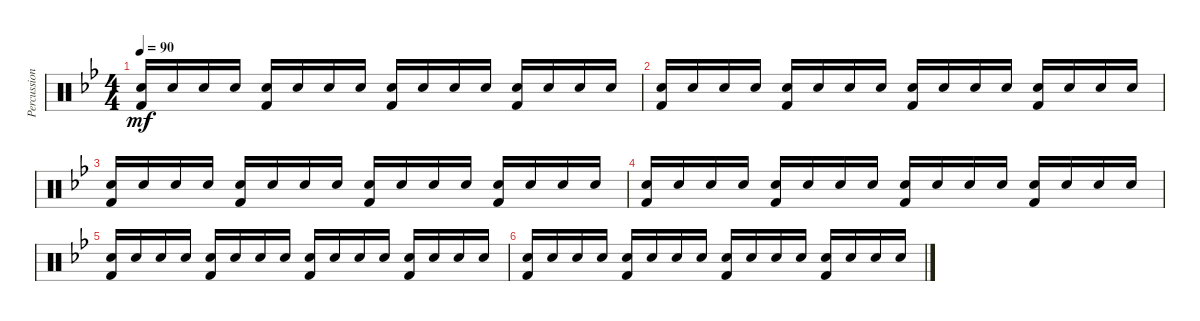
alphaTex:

\track ("Percussion" "Percussion") {instrument percussion}
\staff {score}
\articulation defaults
\ts (4 4)
\tempo 90
\clef neutral
\ks bb
("Snare (hit) 2" "Kick (hit) 2").16{dy mf} "Snare (hit) 2".16 "Snare (hit) 2".16 "Snare (hit) 2".16 ("Snare (hit) 2" "Kick (hit) 2").16 "Snare (hit) 2".16 "Snare (hit) 2".16 "Snare (hit) 2".16 ("Snare (hit) 2" "Kick (hit) 2").16 "Snare (hit) 2".16 "Snare (hit) 2".16 "Snare (hit) 2".16 ("Snare (hit) 2" "Kick (hit) 2").16 "Snare (hit) 2".16 "Snare (hit) 2".16 "Snare (hit) 2".16 |
("Snare (hit) 2" "Kick (hit) 2").16 "Snare (hit) 2".16 "Snare (hit) 2".16 "Snare (hit) 2".16 ("Snare (hit) 2" "Kick (hit) 2").16 "Snare (hit) 2".16 "Snare (hit) 2".16 "Snare (hit) 2".16 ("Snare (hit) 2" "Kick (hit) 2").16 "Snare (hit) 2".16 "Snare (hit) 2".16 "Snare (hit) 2".16 ("Snare (hit) 2" "Kick (hit) 2").16 "Snare (hit) 2".16 "Snare (hit) 2".16 "Snare (hit) 2".16 |
("Snare (hit) 2" "Kick (hit) 2").16 "Snare (hit) 2".16 "Snare (hit) 2".16 "Snare (hit) 2".16 ("Snare (hit) 2" "Kick (hit) 2").16 "Snare (hit) 2".16 "Snare (hit) 2".16 "Snare (hit) 2".16 ("Snare (hit) 2" "Kick (hit) 2").16 "Snare (hit) 2".16 "Snare (hit) 2".16 "Snare (hit) 2".16 ("Snare (hit) 2" "Kick (hit) 2").16 "Snare (hit) 2".16 "Snare (hit) 2".16 "Snare (hit) 2".16 |
("Snare (hit) 2" "Kick (hit) 2").16 "Snare (hit) 2".16 "Snare (hit) 2".16 "Snare (hit) 2".16 ("Snare (hit) 2" "Kick (hit) 2").16 "Snare (hit) 2".16 "Snare (hit) 2".16 "Snare (hit) 2".16 ("Snare (hit) 2" "Kick (hit) 2").16 "Snare (hit) 2".16 "Snare (hit) 2".16 "Snare (hit) 2".16 ("Snare (hit) 2" "Kick (hit) 2").16 "Snare (hit) 2".16 "Snare (hit) 2".16 "Snare (hit) 2".16 |
("Snare (hit) 2" "Kick (hit) 2").16 "Snare (hit) 2".16 "Snare (hit) 2".16 "Snare (hit) 2".16 ("Snare (hit) 2" "Kick (hit) 2").16 "Snare (hit) 2".16 "Snare (hit) 2".16 "Snare (hit) 2".16 ("Snare (hit) 2" "Kick (hit) 2").16 "Snare (hit) 2".16 "Snare (hit) 2".16 "Snare (hit) 2".16 ("Snare (hit) 2" "Kick (hit) 2").16 "Snare (hit) 2".16 "Snare (hit) 2".16 "Snare (hit) 2".16 |
("Snare (hit) 2" "Kick (hit) 2").16 "Snare (hit) 2".16 "Snare (hit) 2".16 "Snare (hit) 2".16 ("Snare (hit) 2" "Kick (hit) 2").16 "Snare (hit) 2".16 "Snare (hit) 2".16 "Snare (hit) 2".16 ("Snare (hit) 2" "Kick (hit) 2").16 "Snare (hit) 2".16 "Snare (hit) 2".16 "Snare (hit) 2".16 ("Snare (hit) 2" "Kick (hit) 2").16 "Snare (hit) 2".16 "Snare (hit) 2".16 "Snare (hit) 2".16
